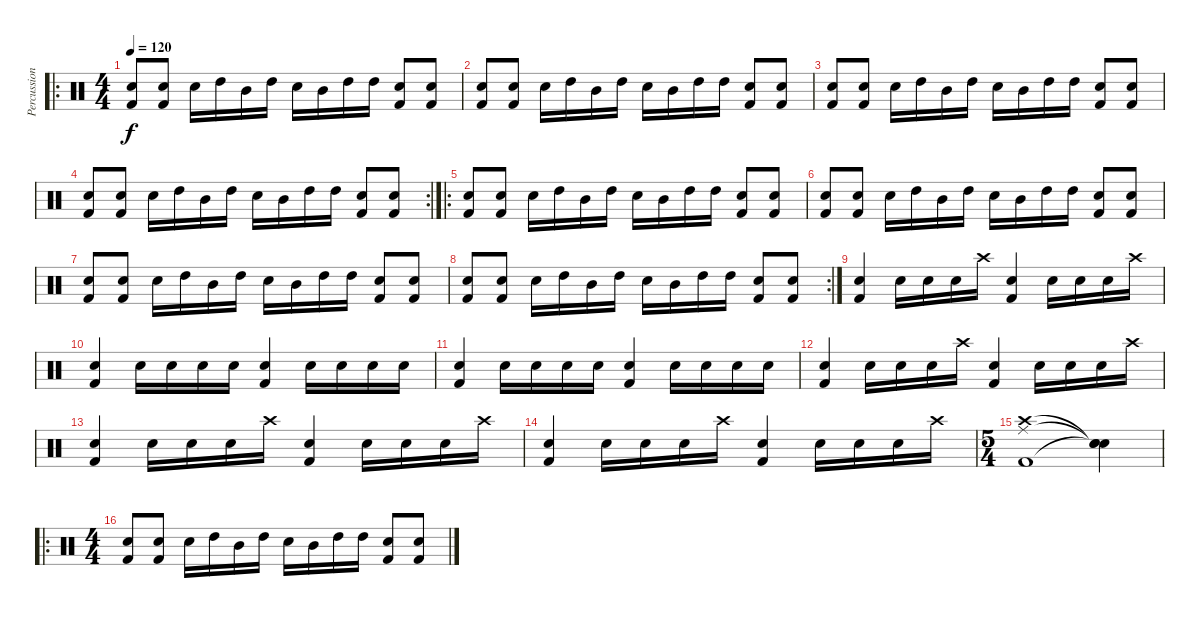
\track ("Percussion" "Percussion") {instrument percussion}
\staff {score}
\articulation defaults
\ro
\ts (4 4)
\tempo 120
\clef neutral
\ks c
("Electric Snare (hit)" "Kick (hit) 2").8{dy f} ("Electric Snare (hit)" "Kick (hit) 2").8 "Electric Snare (hit)".16 "High Tom (hit)".16 "Mid Tom (hit)".16 "High Tom (hit)".16 "Electric Snare (hit)".16 "Mid Tom (hit)".16 "High Tom (hit)".16 "High Tom (hit)".16 ("Electric Snare (hit)" "Kick (hit) 2").8 ("Electric Snare (hit)" "Kick (hit) 2").8 |
("Electric Snare (hit)" "Kick (hit) 2").8 ("Electric Snare (hit)" "Kick (hit) 2").8 "Electric Snare (hit)".16 "High Tom (hit)".16 "Mid Tom (hit)".16 "High Tom (hit)".16 "Electric Snare (hit)".16 "Mid Tom (hit)".16 "High Tom (hit)".16 "High Tom (hit)".16 ("Electric Snare (hit)" "Kick (hit) 2").8 ("Electric Snare (hit)" "Kick (hit) 2").8 |
("Electric Snare (hit)" "Kick (hit) 2").8 ("Electric Snare (hit)" "Kick (hit) 2").8 "Electric Snare (hit)".16 "High Tom (hit)".16 "Mid Tom (hit)".16 "High Tom (hit)".16 "Electric Snare (hit)".16 "Mid Tom (hit)".16 "High Tom (hit)".16 "High Tom (hit)".16 ("Electric Snare (hit)" "Kick (hit) 2").8 ("Electric Snare (hit)" "Kick (hit) 2").8 |
\rc 2
("Electric Snare (hit)" "Kick (hit) 2").8 ("Electric Snare (hit)" "Kick (hit) 2").8 "Electric Snare (hit)".16 "High Tom (hit)".16 "Mid Tom (hit)".16 "High Tom (hit)".16 "Electric Snare (hit)".16 "Mid Tom (hit)".16 "High Tom (hit)".16 "High Tom (hit)".16 ("Electric Snare (hit)" "Kick (hit) 2").8 ("Electric Snare (hit)" "Kick (hit) 2").8 |
\ro
("Electric Snare (hit)" "Kick (hit) 2").8 ("Electric Snare (hit)" "Kick (hit) 2").8 "Electric Snare (hit)".16 "High Tom (hit)".16 "Mid Tom (hit)".16 "High Tom (hit)".16 "Electric Snare (hit)".16 "Mid Tom (hit)".16 "High Tom (hit)".16 "High Tom (hit)".16 ("Electric Snare (hit)" "Kick (hit) 2").8 ("Electric Snare (hit)" "Kick (hit) 2").8 |
("Electric Snare (hit)" "Kick (hit) 2").8 ("Electric Snare (hit)" "Kick (hit) 2").8 "Electric Snare (hit)".16 "High Tom (hit)".16 "Mid Tom (hit)".16 "High Tom (hit)".16 "Electric Snare (hit)".16 "Mid Tom (hit)".16 "High Tom (hit)".16 "High Tom (hit)".16 ("Electric Snare (hit)" "Kick (hit) 2").8 ("Electric Snare (hit)" "Kick (hit) 2").8 |
("Electric Snare (hit)" "Kick (hit) 2").8 ("Electric Snare (hit)" "Kick (hit) 2").8 "Electric Snare (hit)".16 "High Tom (hit)".16 "Mid Tom (hit)".16 "High Tom (hit)".16 "Electric Snare (hit)".16 "Mid Tom (hit)".16 "High Tom (hit)".16 "High Tom (hit)".16 ("Electric Snare (hit)" "Kick (hit) 2").8 ("Electric Snare (hit)" "Kick (hit) 2").8 |
\rc 2
("Electric Snare (hit)" "Kick (hit) 2").8 ("Electric Snare (hit)" "Kick (hit) 2").8 "Electric Snare (hit)".16 "High Tom (hit)".16 "Mid Tom (hit)".16 "High Tom (hit)".16 "Electric Snare (hit)".16 "Mid Tom (hit)".16 "High Tom (hit)".16 "High Tom (hit)".16 ("Electric Snare (hit)" "Kick (hit) 2").8 ("Electric Snare (hit)" "Kick (hit) 2").8 |
("Kick (hit) 2" "Electric Snare (hit)").4 "Electric Snare (hit)".16 "Electric Snare (hit)".16{bd 60} "Electric Snare (hit)".16 "Crash high (hit)".16{bd 60} ("Electric Snare (hit)" "Kick (hit) 2").4 "Electric Snare (hit)".16 "Electric Snare (hit)".16 "Electric Snare (hit)".16 "Crash high (hit)".16 |
("Kick (hit) 2" "Electric Snare (hit)").4 "Electric Snare (hit)".16 "Electric Snare (hit)".16{bd 60} "Electric Snare (hit)".16 "Electric Snare (hit)".16{bd 60} ("Electric Snare (hit)" "Kick (hit) 2").4 "Electric Snare (hit)".16 "Electric Snare (hit)".16 "Electric Snare (hit)".16 "Electric Snare (hit)".16 |
("Kick (hit) 2" "Electric Snare (hit)").4 "Electric Snare (hit)".16 "Electric Snare (hit)".16{bd 60} "Electric Snare (hit)".16 "Electric Snare (hit)".16{bd 60} ("Electric Snare (hit)" "Kick (hit) 2").4 "Electric Snare (hit)".16 "Electric Snare (hit)".16 "Electric Snare (hit)".16 "Electric Snare (hit)".16 |
("Kick (hit) 2" "Electric Snare (hit)").4 "Electric Snare (hit)".16 "Electric Snare (hit)".16{bd 60} "Electric Snare (hit)".16 "Crash high (hit)".16{bd 60} ("Electric Snare (hit)" "Kick (hit) 2").4 "Electric Snare (hit)".16 "Electric Snare (hit)".16 "Electric Snare (hit)".16 "Crash high (hit)".16 |
("Kick (hit) 2" "Electric Snare (hit)").4 "Electric Snare (hit)".16 "Electric Snare (hit)".16{bd 60} "Electric Snare (hit)".16 "Crash high (hit)".16{bd 60} ("Electric Snare (hit)" "Kick (hit) 2").4 "Electric Snare (hit)".16 "Electric Snare (hit)".16 "Electric Snare (hit)".16 "Crash high (hit)".16 |
("Kick (hit) 2" "Electric Snare (hit)").4 "Electric Snare (hit)".16 "Electric Snare (hit)".16{bd 60} "Electric Snare (hit)".16 "Crash high (hit)".16{bd 60} ("Electric Snare (hit)" "Kick (hit) 2").4 "Electric Snare (hit)".16 "Electric Snare (hit)".16 "Electric Snare (hit)".16 "Crash high (hit)".16 |
\ts (5 4)
("Ride (middle)" "Crash high (hit)" "Kick (hit) 2").1 ("Snare (hit)"{t} "Snare (hit)"{t} "Snare (hit)"{t}).4 |
\ro
\ts (4 4)
("Electric Snare (hit)" "Kick (hit) 2").8 ("Electric Snare (hit)" "Kick (hit) 2").8 "Electric Snare (hit)".16 "High Tom (hit)".16 "Mid Tom (hit)".16 "High Tom (hit)".16 "Electric Snare (hit)".16 "Mid Tom (hit)".16 "High Tom (hit)".16 "High Tom (hit)".16 ("Electric Snare (hit)" "Kick (hit) 2").8 ("Electric Snare (hit)" "Kick (hit) 2").8
